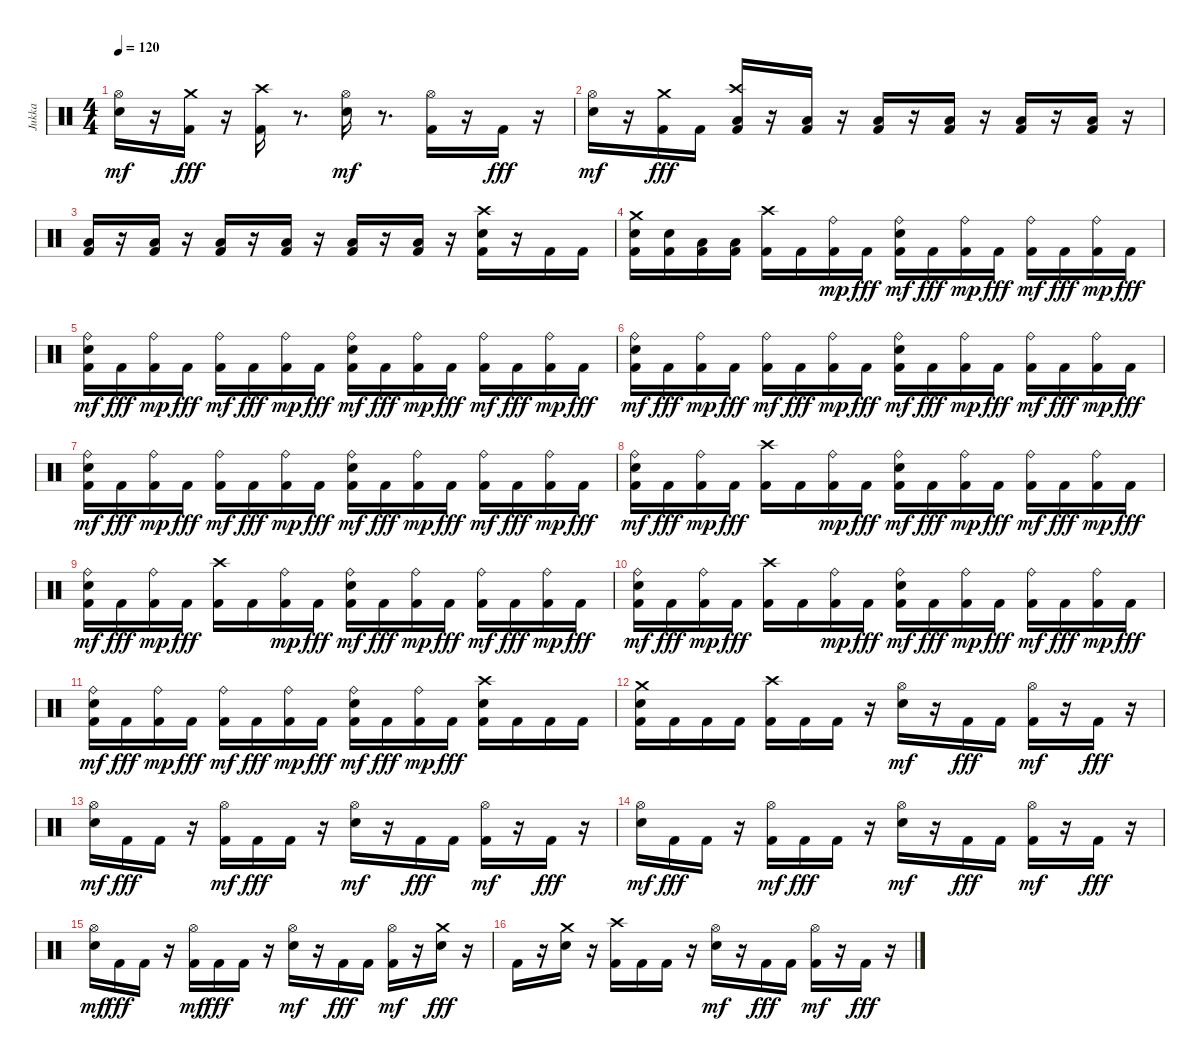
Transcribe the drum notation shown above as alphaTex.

\track ("Jukka" "Jukka") {instrument percussion}
\staff {score}
\articulation defaults
\ts (4 4)
\tempo 120
\clef neutral
\ks c
("Electric Snare (hit)" "Hi-Hat (open)").16{dy mf} r.16 ("Kick (hit) 2" "Crash medium (hit)").16{dy fff} r.16 ("Kick (hit) 2" "Crash high (hit)").16 r.8{d} ("Electric Snare (hit)" "Hi-Hat (open)").16{dy mf} r.8{d} ("Kick (hit) 2" "Hi-Hat (open)").16 r.16 "Kick (hit) 2".16{dy fff} r.16 |
("Electric Snare (hit)" "Hi-Hat (open)").16{dy mf} r.16 ("Kick (hit) 2" "Crash medium (hit)").16{dy fff} "Kick (hit) 2".16 ("Kick (hit) 2" "Low Floor Tom (hit)" "Crash high (hit)").16 r.16 ("Kick (hit) 2" "Low Floor Tom (hit)").16 r.16 ("Kick (hit) 2" "Low Floor Tom (hit)").16 r.16 ("Kick (hit) 2" "Low Floor Tom (hit)").16 r.16 ("Kick (hit) 2" "Low Floor Tom (hit)").16 r.16 ("Kick (hit) 2" "Low Floor Tom (hit)").16 r.16 |
("Kick (hit) 2" "Low Floor Tom (hit)").16 r.16 ("Kick (hit) 2" "Low Floor Tom (hit)").16 r.16 ("Kick (hit) 2" "Low Floor Tom (hit)").16 r.16 ("Kick (hit) 2" "Low Floor Tom (hit)").16 r.16 ("Kick (hit) 2" "Low Floor Tom (hit)").16 r.16 ("Kick (hit) 2" "Low Floor Tom (hit)").16 r.16 ("Electric Snare (hit)" "Kick (hit) 2" "Crash high (hit)").16 r.16 "Kick (hit) 2".16 "Kick (hit) 2".16 |
("Kick (hit) 2" "Electric Snare (hit)" "Crash medium (hit)").16 ("Electric Snare (hit)" "Kick (hit) 2").16 ("Kick (hit) 2" "Low Tom (hit)").16 ("Kick (hit) 2" "Low Floor Tom (hit)").16 ("Kick (hit) 2" "Crash high (hit)").16 "Kick (hit) 2".16 ("Kick (hit) 2" "Ride (bell)").16{dy mp} "Kick (hit) 2".16{dy fff} ("Kick (hit) 2" "Electric Snare (hit)" "Ride (bell)").16{dy mf} "Kick (hit) 2".16{dy fff} ("Kick (hit) 2" "Ride (bell)").16{dy mp} "Kick (hit) 2".16{dy fff} ("Kick (hit) 2" "Ride (bell)").16{dy mf} "Kick (hit) 2".16{dy fff} ("Kick (hit) 2" "Ride (bell)").16{dy mp} "Kick (hit) 2".16{dy fff} |
("Kick (hit) 2" "Electric Snare (hit)" "Ride (bell)").16{dy mf} "Kick (hit) 2".16{dy fff} ("Kick (hit) 2" "Ride (bell)").16{dy mp} "Kick (hit) 2".16{dy fff} ("Kick (hit) 2" "Ride (bell)").16{dy mf} "Kick (hit) 2".16{dy fff} ("Kick (hit) 2" "Ride (bell)").16{dy mp} "Kick (hit) 2".16{dy fff} ("Kick (hit) 2" "Electric Snare (hit)" "Ride (bell)").16{dy mf} "Kick (hit) 2".16{dy fff} ("Kick (hit) 2" "Ride (bell)").16{dy mp} "Kick (hit) 2".16{dy fff} ("Kick (hit) 2" "Ride (bell)").16{dy mf} "Kick (hit) 2".16{dy fff} ("Kick (hit) 2" "Ride (bell)").16{dy mp} "Kick (hit) 2".16{dy fff} |
("Kick (hit) 2" "Electric Snare (hit)" "Ride (bell)").16{dy mf} "Kick (hit) 2".16{dy fff} ("Kick (hit) 2" "Ride (bell)").16{dy mp} "Kick (hit) 2".16{dy fff} ("Kick (hit) 2" "Ride (bell)").16{dy mf} "Kick (hit) 2".16{dy fff} ("Kick (hit) 2" "Ride (bell)").16{dy mp} "Kick (hit) 2".16{dy fff} ("Kick (hit) 2" "Electric Snare (hit)" "Ride (bell)").16{dy mf} "Kick (hit) 2".16{dy fff} ("Kick (hit) 2" "Ride (bell)").16{dy mp} "Kick (hit) 2".16{dy fff} ("Kick (hit) 2" "Ride (bell)").16{dy mf} "Kick (hit) 2".16{dy fff} ("Kick (hit) 2" "Ride (bell)").16{dy mp} "Kick (hit) 2".16{dy fff} |
("Kick (hit) 2" "Electric Snare (hit)" "Ride (bell)").16{dy mf} "Kick (hit) 2".16{dy fff} ("Kick (hit) 2" "Ride (bell)").16{dy mp} "Kick (hit) 2".16{dy fff} ("Kick (hit) 2" "Ride (bell)").16{dy mf} "Kick (hit) 2".16{dy fff} ("Kick (hit) 2" "Ride (bell)").16{dy mp} "Kick (hit) 2".16{dy fff} ("Kick (hit) 2" "Electric Snare (hit)" "Ride (bell)").16{dy mf} "Kick (hit) 2".16{dy fff} ("Kick (hit) 2" "Ride (bell)").16{dy mp} "Kick (hit) 2".16{dy fff} ("Kick (hit) 2" "Ride (bell)").16{dy mf} "Kick (hit) 2".16{dy fff} ("Kick (hit) 2" "Ride (bell)").16{dy mp} "Kick (hit) 2".16{dy fff} |
("Kick (hit) 2" "Electric Snare (hit)" "Ride (bell)").16{dy mf} "Kick (hit) 2".16{dy fff} ("Kick (hit) 2" "Ride (bell)").16{dy mp} "Kick (hit) 2".16{dy fff} ("Kick (hit) 2" "Crash high (hit)").16 "Kick (hit) 2".16 ("Kick (hit) 2" "Ride (bell)").16{dy mp} "Kick (hit) 2".16{dy fff} ("Kick (hit) 2" "Electric Snare (hit)" "Ride (bell)").16{dy mf} "Kick (hit) 2".16{dy fff} ("Kick (hit) 2" "Ride (bell)").16{dy mp} "Kick (hit) 2".16{dy fff} ("Kick (hit) 2" "Ride (bell)").16{dy mf} "Kick (hit) 2".16{dy fff} ("Kick (hit) 2" "Ride (bell)").16{dy mp} "Kick (hit) 2".16{dy fff} |
("Kick (hit) 2" "Electric Snare (hit)" "Ride (bell)").16{dy mf} "Kick (hit) 2".16{dy fff} ("Kick (hit) 2" "Ride (bell)").16{dy mp} "Kick (hit) 2".16{dy fff} ("Kick (hit) 2" "Crash high (hit)").16 "Kick (hit) 2".16 ("Kick (hit) 2" "Ride (bell)").16{dy mp} "Kick (hit) 2".16{dy fff} ("Kick (hit) 2" "Electric Snare (hit)" "Ride (bell)").16{dy mf} "Kick (hit) 2".16{dy fff} ("Kick (hit) 2" "Ride (bell)").16{dy mp} "Kick (hit) 2".16{dy fff} ("Kick (hit) 2" "Ride (bell)").16{dy mf} "Kick (hit) 2".16{dy fff} ("Kick (hit) 2" "Ride (bell)").16{dy mp} "Kick (hit) 2".16{dy fff} |
("Kick (hit) 2" "Electric Snare (hit)" "Ride (bell)").16{dy mf} "Kick (hit) 2".16{dy fff} ("Kick (hit) 2" "Ride (bell)").16{dy mp} "Kick (hit) 2".16{dy fff} ("Kick (hit) 2" "Crash high (hit)").16 "Kick (hit) 2".16 ("Kick (hit) 2" "Ride (bell)").16{dy mp} "Kick (hit) 2".16{dy fff} ("Kick (hit) 2" "Electric Snare (hit)" "Ride (bell)").16{dy mf} "Kick (hit) 2".16{dy fff} ("Kick (hit) 2" "Ride (bell)").16{dy mp} "Kick (hit) 2".16{dy fff} ("Kick (hit) 2" "Ride (bell)").16{dy mf} "Kick (hit) 2".16{dy fff} ("Kick (hit) 2" "Ride (bell)").16{dy mp} "Kick (hit) 2".16{dy fff} |
("Kick (hit) 2" "Electric Snare (hit)" "Ride (bell)").16{dy mf} "Kick (hit) 2".16{dy fff} ("Kick (hit) 2" "Ride (bell)").16{dy mp} "Kick (hit) 2".16{dy fff} ("Kick (hit) 2" "Ride (bell)").16{dy mf} "Kick (hit) 2".16{dy fff} ("Kick (hit) 2" "Ride (bell)").16{dy mp} "Kick (hit) 2".16{dy fff} ("Kick (hit) 2" "Electric Snare (hit)" "Ride (bell)").16{dy mf} "Kick (hit) 2".16{dy fff} ("Kick (hit) 2" "Ride (bell)").16{dy mp} "Kick (hit) 2".16{dy fff} ("Kick (hit) 2" "Electric Snare (hit)" "Crash high (hit)").16 "Kick (hit) 2".16 "Kick (hit) 2".16 "Kick (hit) 2".16 |
("Kick (hit) 2" "Electric Snare (hit)" "Crash medium (hit)").16 "Kick (hit) 2".16 "Kick (hit) 2".16 "Kick (hit) 2".16 ("Kick (hit) 2" "Crash high (hit)").16 "Kick (hit) 2".16 "Kick (hit) 2".16 r.16 ("Electric Snare (hit)" "Hi-Hat (open)").16{dy mf} r.16 "Kick (hit) 2".16{dy fff} "Kick (hit) 2".16 ("Kick (hit) 2" "Hi-Hat (open)").16{dy mf} r.16 "Kick (hit) 2".16{dy fff} r.16 |
("Electric Snare (hit)" "Hi-Hat (open)").16{dy mf} "Kick (hit) 2".16{dy fff} "Kick (hit) 2".16 r.16 ("Kick (hit) 2" "Hi-Hat (open)").16{dy mf} "Kick (hit) 2".16{dy fff} "Kick (hit) 2".16 r.16 ("Electric Snare (hit)" "Hi-Hat (open)").16{dy mf} r.16 "Kick (hit) 2".16{dy fff} "Kick (hit) 2".16 ("Kick (hit) 2" "Hi-Hat (open)").16{dy mf} r.16 "Kick (hit) 2".16{dy fff} r.16 |
("Electric Snare (hit)" "Hi-Hat (open)").16{dy mf} "Kick (hit) 2".16{dy fff} "Kick (hit) 2".16 r.16 ("Kick (hit) 2" "Hi-Hat (open)").16{dy mf} "Kick (hit) 2".16{dy fff} "Kick (hit) 2".16 r.16 ("Electric Snare (hit)" "Hi-Hat (open)").16{dy mf} r.16 "Kick (hit) 2".16{dy fff} "Kick (hit) 2".16 ("Kick (hit) 2" "Hi-Hat (open)").16{dy mf} r.16 "Kick (hit) 2".16{dy fff} r.16 |
("Electric Snare (hit)" "Hi-Hat (open)").16{dy mf} "Kick (hit) 2".16{dy fff} "Kick (hit) 2".16 r.16 ("Kick (hit) 2" "Hi-Hat (open)").16{dy mf} "Kick (hit) 2".16{dy fff} "Kick (hit) 2".16 r.16 ("Electric Snare (hit)" "Hi-Hat (open)").16{dy mf} r.16 "Kick (hit) 2".16{dy fff} "Kick (hit) 2".16 ("Kick (hit) 2" "Hi-Hat (open)").16{dy mf} r.16 ("Electric Snare (hit)" "Crash medium (hit)").16{dy fff} r.16 |
"Kick (hit) 2".16 r.16 ("Electric Snare (hit)" "Crash medium (hit)").16 r.16 ("Kick (hit) 2" "Crash high (hit)").16 "Kick (hit) 2".16 "Kick (hit) 2".16 r.16 ("Electric Snare (hit)" "Hi-Hat (open)").16{dy mf} r.16 "Kick (hit) 2".16{dy fff} "Kick (hit) 2".16 ("Kick (hit) 2" "Hi-Hat (open)").16{dy mf} r.16 "Kick (hit) 2".16{dy fff} r.16
